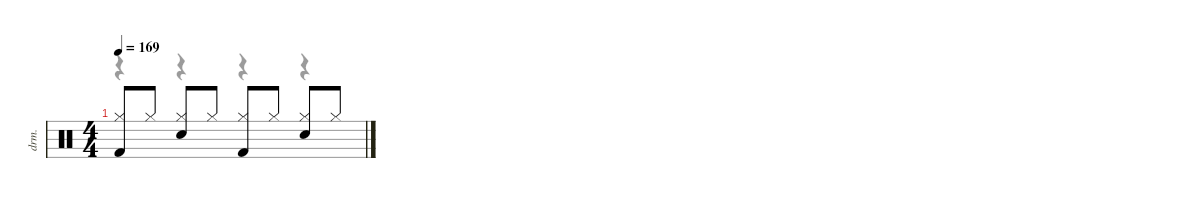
\defaultSystemsLayout 4
\hideDynamics
\bracketExtendMode nobrackets
\otherSystemsTrackNameOrientation horizontal
\track ("Drums" "drm.") {instrument percussion}
\staff {score}
\articulation defaults
\voice
\ts (4 4)
\tempo 169
\clef neutral
\ks c
("Hi-Hat (closed)" "Kick (hit) 2").8{dy f} "Hi-Hat (closed)".8 ("Hi-Hat (closed)" "Snare (hit) 2").8 "Hi-Hat (closed)".8 ("Hi-Hat (closed)" "Kick (hit) 2").8 "Hi-Hat (closed)".8 ("Hi-Hat (closed)" "Snare (hit) 2").8 "Hi-Hat (closed)".8
\voice
\clef neutral
\ottava regular
\simile none
\ks c
r.4{dy mf} r.4 r.4 r.4
